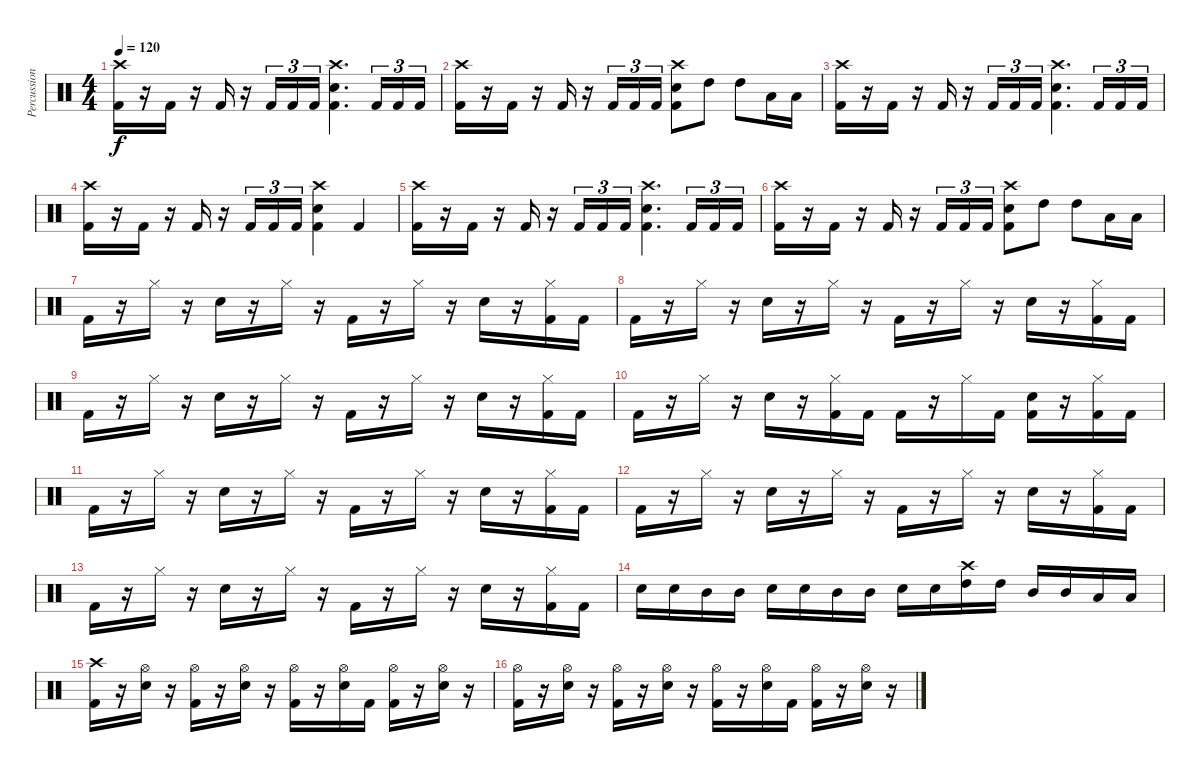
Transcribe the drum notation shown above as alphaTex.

\track ("Percussion" "Percussion") {instrument percussion}
\staff {score}
\articulation defaults
\ts (4 4)
\tempo 120
\clef neutral
\ks c
("Crash high (hit)" "Kick (hit) 2").16{dy f} r.16 "Kick (hit) 2".16 r.16 "Kick (hit) 2".16 r.16 "Kick (hit) 2".16{tu (3 2)} "Kick (hit) 2".16{tu (3 2)} "Kick (hit) 2".16{tu (3 2)} ("Crash high (hit)" "Electric Snare (hit)" "Kick (hit) 2").4{d} "Kick (hit) 2".16{tu (3 2)} "Kick (hit) 2".16{tu (3 2)} "Kick (hit) 2".16{tu (3 2)} |
("Crash high (hit)" "Kick (hit) 2").16 r.16 "Kick (hit) 2".16 r.16 "Kick (hit) 2".16 r.16 "Kick (hit) 2".16{tu (3 2)} "Kick (hit) 2".16{tu (3 2)} "Kick (hit) 2".16{tu (3 2)} ("Crash high (hit)" "Electric Snare (hit)" "Kick (hit) 2").8 "High Tom (hit)".8 "High Tom (hit)".8 "Low Tom (hit)".16 "Low Tom (hit)".16 |
("Crash high (hit)" "Kick (hit) 2").16 r.16 "Kick (hit) 2".16 r.16 "Kick (hit) 2".16 r.16 "Kick (hit) 2".16{tu (3 2)} "Kick (hit) 2".16{tu (3 2)} "Kick (hit) 2".16{tu (3 2)} ("Crash high (hit)" "Electric Snare (hit)" "Kick (hit) 2").4{d} "Kick (hit) 2".16{tu (3 2)} "Kick (hit) 2".16{tu (3 2)} "Kick (hit) 2".16{tu (3 2)} |
("Crash high (hit)" "Kick (hit) 2").16 r.16 "Kick (hit) 2".16 r.16 "Kick (hit) 2".16 r.16 "Kick (hit) 2".16{tu (3 2)} "Kick (hit) 2".16{tu (3 2)} "Kick (hit) 2".16{tu (3 2)} ("Crash high (hit)" "Electric Snare (hit)" "Kick (hit) 2").4 "Kick (hit) 2".4 |
("Crash high (hit)" "Kick (hit) 2").16 r.16 "Kick (hit) 2".16 r.16 "Kick (hit) 2".16 r.16 "Kick (hit) 2".16{tu (3 2)} "Kick (hit) 2".16{tu (3 2)} "Kick (hit) 2".16{tu (3 2)} ("Crash high (hit)" "Electric Snare (hit)" "Kick (hit) 2").4{d} "Kick (hit) 2".16{tu (3 2)} "Kick (hit) 2".16{tu (3 2)} "Kick (hit) 2".16{tu (3 2)} |
("Crash high (hit)" "Kick (hit) 2").16 r.16 "Kick (hit) 2".16 r.16 "Kick (hit) 2".16 r.16 "Kick (hit) 2".16{tu (3 2)} "Kick (hit) 2".16{tu (3 2)} "Kick (hit) 2".16{tu (3 2)} ("Crash high (hit)" "Electric Snare (hit)" "Kick (hit) 2").8 "High Tom (hit)".8 "High Tom (hit)".8 "Low Tom (hit)".16 "Low Tom (hit)".16 |
"Kick (hit) 2".16 r.16 "Hi-Hat (closed)".16 r.16 "Electric Snare (hit)".16 r.16 "Hi-Hat (closed)".16 r.16 "Kick (hit) 2".16 r.16 "Hi-Hat (closed)".16 r.16 "Electric Snare (hit)".16 r.16 ("Hi-Hat (closed)" "Kick (hit) 2").16 "Kick (hit) 2".16 |
"Kick (hit) 2".16 r.16 "Hi-Hat (closed)".16 r.16 "Electric Snare (hit)".16 r.16 "Hi-Hat (closed)".16 r.16 "Kick (hit) 2".16 r.16 "Hi-Hat (closed)".16 r.16 "Electric Snare (hit)".16 r.16 ("Hi-Hat (closed)" "Kick (hit) 2").16 "Kick (hit) 2".16 |
"Kick (hit) 2".16 r.16 "Hi-Hat (closed)".16 r.16 "Electric Snare (hit)".16 r.16 "Hi-Hat (closed)".16 r.16 "Kick (hit) 2".16 r.16 "Hi-Hat (closed)".16 r.16 "Electric Snare (hit)".16 r.16 ("Hi-Hat (closed)" "Kick (hit) 2").16 "Kick (hit) 2".16 |
"Kick (hit) 2".16 r.16 "Hi-Hat (closed)".16 r.16 "Electric Snare (hit)".16 r.16 ("Hi-Hat (closed)" "Kick (hit) 2").16 "Kick (hit) 2".16 "Kick (hit) 2".16 r.16 "Hi-Hat (closed)".16 "Kick (hit) 2".16 ("Electric Snare (hit)" "Kick (hit) 2").16 r.16 ("Hi-Hat (closed)" "Kick (hit) 2").16 "Kick (hit) 2".16 |
"Kick (hit) 2".16 r.16 "Hi-Hat (closed)".16 r.16 "Electric Snare (hit)".16 r.16 "Hi-Hat (closed)".16 r.16 "Kick (hit) 2".16 r.16 "Hi-Hat (closed)".16 r.16 "Electric Snare (hit)".16 r.16 ("Hi-Hat (closed)" "Kick (hit) 2").16 "Kick (hit) 2".16 |
"Kick (hit) 2".16 r.16 "Hi-Hat (closed)".16 r.16 "Electric Snare (hit)".16 r.16 "Hi-Hat (closed)".16 r.16 "Kick (hit) 2".16 r.16 "Hi-Hat (closed)".16 r.16 "Electric Snare (hit)".16 r.16 ("Hi-Hat (closed)" "Kick (hit) 2").16 "Kick (hit) 2".16 |
"Kick (hit) 2".16 r.16 "Hi-Hat (closed)".16 r.16 "Electric Snare (hit)".16 r.16 "Hi-Hat (closed)".16 r.16 "Kick (hit) 2".16 r.16 "Hi-Hat (closed)".16 r.16 "Electric Snare (hit)".16 r.16 ("Hi-Hat (closed)" "Kick (hit) 2").16 "Kick (hit) 2".16 |
"Electric Snare (hit)".16 "Electric Snare (hit)".16 "Mid Tom (hit)".16 "Mid Tom (hit)".16 "Electric Snare (hit)".16 "Electric Snare (hit)".16 "Mid Tom (hit)".16 "Mid Tom (hit)".16 "Electric Snare (hit)".16 "Electric Snare (hit)".16 ("Crash high (hit)" "High Tom (hit)").16 "High Tom (hit)".16 "Mid Tom (hit)".16 "Mid Tom (hit)".16 "Low Tom (hit)".16 "Low Tom (hit)".16 |
("Crash high (hit)" "Kick (hit) 2").16 r.16 ("Hi-Hat (open)" "Electric Snare (hit)").16 r.16 ("Hi-Hat (open)" "Kick (hit) 2").16 r.16 ("Hi-Hat (open)" "Electric Snare (hit)").16 r.16 ("Hi-Hat (open)" "Kick (hit) 2").16 r.16 ("Hi-Hat (open)" "Electric Snare (hit)").16 "Kick (hit) 2".16 ("Hi-Hat (open)" "Kick (hit) 2").16 r.16 ("Hi-Hat (open)" "Electric Snare (hit)").16 r.16 |
("Hi-Hat (open)" "Kick (hit) 2").16 r.16 ("Hi-Hat (open)" "Electric Snare (hit)").16 r.16 ("Hi-Hat (open)" "Kick (hit) 2").16 r.16 ("Hi-Hat (open)" "Electric Snare (hit)").16 r.16 ("Hi-Hat (open)" "Kick (hit) 2").16 r.16 ("Hi-Hat (open)" "Electric Snare (hit)").16 "Kick (hit) 2".16 ("Hi-Hat (open)" "Kick (hit) 2").16 r.16 ("Hi-Hat (open)" "Electric Snare (hit)").16 r.16
